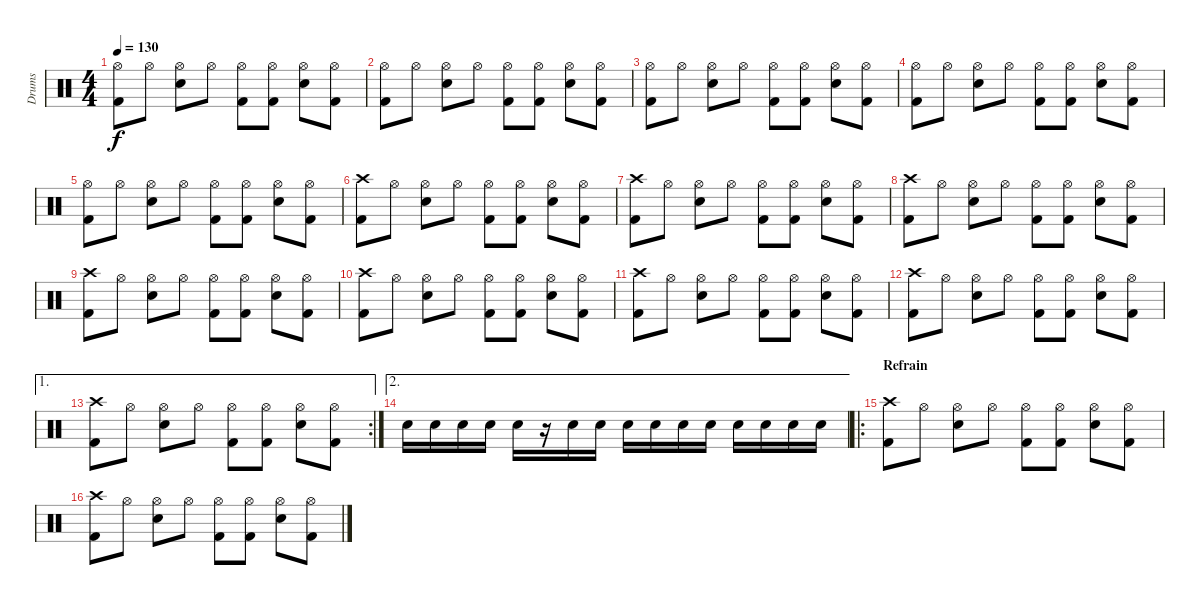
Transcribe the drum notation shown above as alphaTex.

\track ("Drums" "Drums") {instrument percussion}
\staff {score}
\articulation defaults
\ts (4 4)
\tempo 130
\clef neutral
\ks c
("Hi-Hat (open)" "Kick (hit) 2").8{dy f} "Hi-Hat (open)".8 ("Hi-Hat (open)" "Electric Snare (hit)").8 "Hi-Hat (open)".8 ("Hi-Hat (open)" "Kick (hit) 2").8 ("Hi-Hat (open)" "Kick (hit) 2").8 ("Hi-Hat (open)" "Electric Snare (hit)").8 ("Hi-Hat (open)" "Kick (hit) 2").8 |
("Hi-Hat (open)" "Kick (hit) 2").8 "Hi-Hat (open)".8 ("Hi-Hat (open)" "Electric Snare (hit)").8 "Hi-Hat (open)".8 ("Hi-Hat (open)" "Kick (hit) 2").8 ("Hi-Hat (open)" "Kick (hit) 2").8 ("Hi-Hat (open)" "Electric Snare (hit)").8 ("Hi-Hat (open)" "Kick (hit) 2").8 |
("Hi-Hat (open)" "Kick (hit) 2").8 "Hi-Hat (open)".8 ("Hi-Hat (open)" "Electric Snare (hit)").8 "Hi-Hat (open)".8 ("Hi-Hat (open)" "Kick (hit) 2").8 ("Hi-Hat (open)" "Kick (hit) 2").8 ("Hi-Hat (open)" "Electric Snare (hit)").8 ("Hi-Hat (open)" "Kick (hit) 2").8 |
("Hi-Hat (open)" "Kick (hit) 2").8 "Hi-Hat (open)".8 ("Hi-Hat (open)" "Electric Snare (hit)").8 "Hi-Hat (open)".8 ("Hi-Hat (open)" "Kick (hit) 2").8 ("Hi-Hat (open)" "Kick (hit) 2").8 ("Hi-Hat (open)" "Electric Snare (hit)").8 ("Hi-Hat (open)" "Kick (hit) 2").8 |
("Hi-Hat (open)" "Kick (hit) 2").8 "Hi-Hat (open)".8 ("Hi-Hat (open)" "Electric Snare (hit)").8 "Hi-Hat (open)".8 ("Hi-Hat (open)" "Kick (hit) 2").8 ("Hi-Hat (open)" "Kick (hit) 2").8 ("Hi-Hat (open)" "Electric Snare (hit)").8 ("Hi-Hat (open)" "Kick (hit) 2").8 |
("Crash high (hit)" "Kick (hit) 2").8 "Hi-Hat (open)".8 ("Hi-Hat (open)" "Electric Snare (hit)").8 "Hi-Hat (open)".8 ("Hi-Hat (open)" "Kick (hit) 2").8 ("Hi-Hat (open)" "Kick (hit) 2").8 ("Hi-Hat (open)" "Electric Snare (hit)").8 ("Hi-Hat (open)" "Kick (hit) 2").8 |
("Crash high (hit)" "Kick (hit) 2").8 "Hi-Hat (open)".8 ("Hi-Hat (open)" "Electric Snare (hit)").8 "Hi-Hat (open)".8 ("Hi-Hat (open)" "Kick (hit) 2").8 ("Hi-Hat (open)" "Kick (hit) 2").8 ("Hi-Hat (open)" "Electric Snare (hit)").8 ("Hi-Hat (open)" "Kick (hit) 2").8 |
("Crash high (hit)" "Kick (hit) 2").8 "Hi-Hat (open)".8 ("Hi-Hat (open)" "Electric Snare (hit)").8 "Hi-Hat (open)".8 ("Hi-Hat (open)" "Kick (hit) 2").8 ("Hi-Hat (open)" "Kick (hit) 2").8 ("Hi-Hat (open)" "Electric Snare (hit)").8 ("Hi-Hat (open)" "Kick (hit) 2").8 |
("Crash high (hit)" "Kick (hit) 2").8 "Hi-Hat (open)".8 ("Hi-Hat (open)" "Electric Snare (hit)").8 "Hi-Hat (open)".8 ("Hi-Hat (open)" "Kick (hit) 2").8 ("Hi-Hat (open)" "Kick (hit) 2").8 ("Hi-Hat (open)" "Electric Snare (hit)").8 ("Hi-Hat (open)" "Kick (hit) 2").8 |
("Crash high (hit)" "Kick (hit) 2").8 "Hi-Hat (open)".8 ("Hi-Hat (open)" "Electric Snare (hit)").8 "Hi-Hat (open)".8 ("Hi-Hat (open)" "Kick (hit) 2").8 ("Hi-Hat (open)" "Kick (hit) 2").8 ("Hi-Hat (open)" "Electric Snare (hit)").8 ("Hi-Hat (open)" "Kick (hit) 2").8 |
("Crash high (hit)" "Kick (hit) 2").8 "Hi-Hat (open)".8 ("Hi-Hat (open)" "Electric Snare (hit)").8 "Hi-Hat (open)".8 ("Hi-Hat (open)" "Kick (hit) 2").8 ("Hi-Hat (open)" "Kick (hit) 2").8 ("Hi-Hat (open)" "Electric Snare (hit)").8 ("Hi-Hat (open)" "Kick (hit) 2").8 |
("Crash high (hit)" "Kick (hit) 2").8 "Hi-Hat (open)".8 ("Hi-Hat (open)" "Electric Snare (hit)").8 "Hi-Hat (open)".8 ("Hi-Hat (open)" "Kick (hit) 2").8 ("Hi-Hat (open)" "Kick (hit) 2").8 ("Hi-Hat (open)" "Electric Snare (hit)").8 ("Hi-Hat (open)" "Kick (hit) 2").8 |
\ae 1
\rc 2
("Crash high (hit)" "Kick (hit) 2").8 "Hi-Hat (open)".8 ("Hi-Hat (open)" "Electric Snare (hit)").8 "Hi-Hat (open)".8 ("Hi-Hat (open)" "Kick (hit) 2").8 ("Hi-Hat (open)" "Kick (hit) 2").8 ("Hi-Hat (open)" "Electric Snare (hit)").8 ("Hi-Hat (open)" "Kick (hit) 2").8 |
\ae 2 "Electric Snare (hit)".16 "Electric Snare (hit)".16 "Electric Snare (hit)".16 "Electric Snare (hit)".16 "Electric Snare (hit)".16
r.16 "Electric Snare (hit)".16 "Electric Snare (hit)".16 "Electric Snare (hit)".16 "Electric Snare (hit)".16 "Electric Snare (hit)".16 "Electric Snare (hit)".16 "Electric Snare (hit)".16 "Electric Snare (hit)".16 "Electric Snare (hit)".16 "Electric Snare (hit)".16 |
\ro
\section ("" "Refrain")
("Crash high (hit)" "Kick (hit) 2").8 "Hi-Hat (open)".8 ("Hi-Hat (open)" "Electric Snare (hit)").8 "Hi-Hat (open)".8 ("Hi-Hat (open)" "Kick (hit) 2").8 ("Hi-Hat (open)" "Kick (hit) 2").8 ("Hi-Hat (open)" "Electric Snare (hit)").8 ("Hi-Hat (open)" "Kick (hit) 2").8 |
("Crash high (hit)" "Kick (hit) 2").8 "Hi-Hat (open)".8 ("Hi-Hat (open)" "Electric Snare (hit)").8 "Hi-Hat (open)".8 ("Hi-Hat (open)" "Kick (hit) 2").8 ("Hi-Hat (open)" "Kick (hit) 2").8 ("Hi-Hat (open)" "Electric Snare (hit)").8 ("Hi-Hat (open)" "Kick (hit) 2").8
